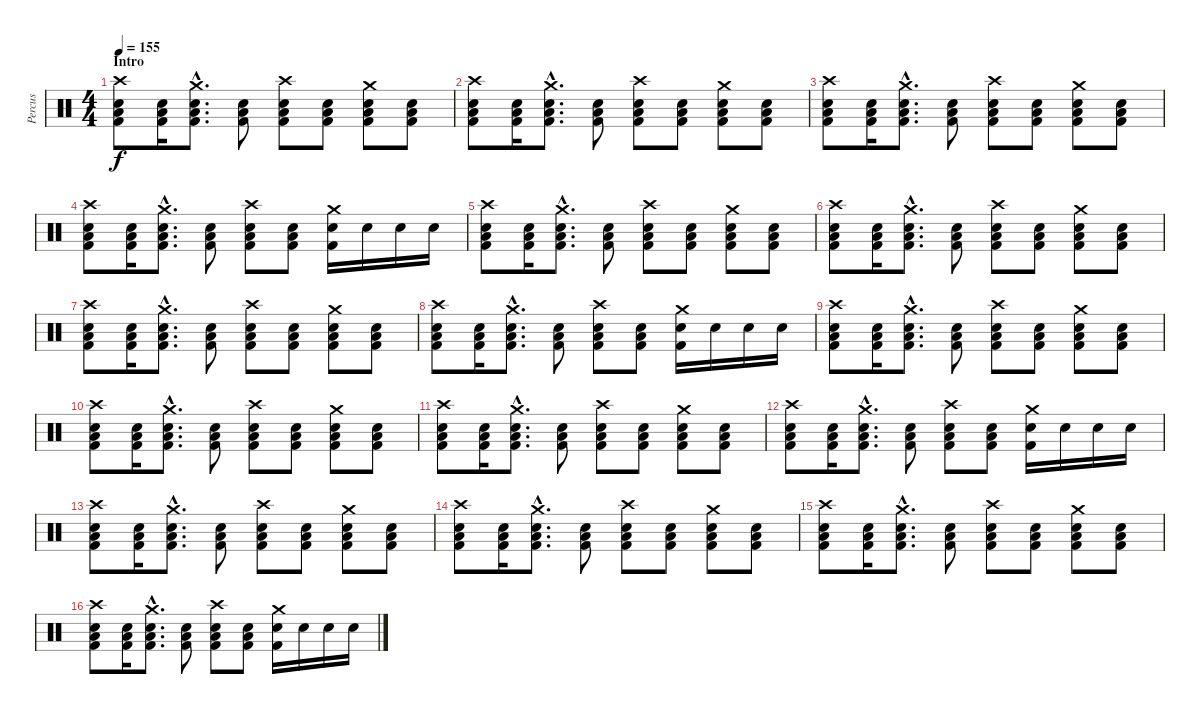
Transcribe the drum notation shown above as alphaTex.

\track ("Percus" "Percus") {instrument percussion}
\staff {score}
\articulation defaults
\ts (4 4)
\section ("" "Intro")
\tempo 155
\clef neutral
\ks c
("Crash high (hit)" "Electric Snare (hit)" "Low Floor Tom (hit)" "Kick (hit) 2").8{dy f} ("Electric Snare (hit)" "Low Tom (hit)" "Kick (hit) 2").16 ("Crash medium (hit)"{hac} "Electric Snare (hit)"{hac} "Low Floor Tom (hit)"{hac} "Kick (hit) 2"{hac}).8{d} ("Electric Snare (hit)" "Low Tom (hit)" "Kick (hit) 2").8 ("Crash high (hit)" "Electric Snare (hit)" "Low Floor Tom (hit)" "Kick (hit) 2").8 ("Electric Snare (hit)" "Low Tom (hit)" "Kick (hit) 2").8 ("Crash medium (hit)" "Electric Snare (hit)" "Low Floor Tom (hit)" "Kick (hit) 2").8 ("Electric Snare (hit)" "Low Tom (hit)" "Kick (hit) 2").8 |
("Crash high (hit)" "Electric Snare (hit)" "Low Floor Tom (hit)" "Kick (hit) 2").8 ("Electric Snare (hit)" "Low Tom (hit)" "Kick (hit) 2").16 ("Crash medium (hit)"{hac} "Electric Snare (hit)"{hac} "Low Floor Tom (hit)"{hac} "Kick (hit) 2"{hac}).8{d} ("Electric Snare (hit)" "Low Tom (hit)" "Kick (hit) 2").8 ("Crash high (hit)" "Electric Snare (hit)" "Low Floor Tom (hit)" "Kick (hit) 2").8 ("Electric Snare (hit)" "Low Tom (hit)" "Kick (hit) 2").8 ("Crash medium (hit)" "Electric Snare (hit)" "Low Floor Tom (hit)" "Kick (hit) 2").8 ("Electric Snare (hit)" "Low Tom (hit)" "Kick (hit) 2").8 |
("Crash high (hit)" "Electric Snare (hit)" "Low Floor Tom (hit)" "Kick (hit) 2").8 ("Electric Snare (hit)" "Low Tom (hit)" "Kick (hit) 2").16 ("Crash medium (hit)"{hac} "Electric Snare (hit)"{hac} "Low Floor Tom (hit)"{hac} "Kick (hit) 2"{hac}).8{d} ("Electric Snare (hit)" "Low Tom (hit)" "Kick (hit) 2").8 ("Crash high (hit)" "Electric Snare (hit)" "Low Floor Tom (hit)" "Kick (hit) 2").8 ("Electric Snare (hit)" "Low Tom (hit)" "Kick (hit) 2").8 ("Crash medium (hit)" "Electric Snare (hit)" "Low Floor Tom (hit)" "Kick (hit) 2").8 ("Electric Snare (hit)" "Low Tom (hit)" "Kick (hit) 2").8 |
("Crash high (hit)" "Electric Snare (hit)" "Low Floor Tom (hit)" "Kick (hit) 2").8 ("Electric Snare (hit)" "Low Tom (hit)" "Kick (hit) 2").16 ("Crash medium (hit)"{hac} "Electric Snare (hit)"{hac} "Low Floor Tom (hit)"{hac} "Kick (hit) 2"{hac}).8{d} ("Electric Snare (hit)" "Low Tom (hit)" "Kick (hit) 2").8 ("Crash high (hit)" "Electric Snare (hit)" "Low Floor Tom (hit)" "Kick (hit) 2").8 ("Electric Snare (hit)" "Low Tom (hit)" "Kick (hit) 2").8 ("Crash medium (hit)" "Electric Snare (hit)" "Kick (hit) 2").16 "Electric Snare (hit)".16 "Electric Snare (hit)".16 "Electric Snare (hit)".16 |
("Crash high (hit)" "Electric Snare (hit)" "Low Floor Tom (hit)" "Kick (hit) 2").8 ("Electric Snare (hit)" "Low Tom (hit)" "Kick (hit) 2").16 ("Crash medium (hit)"{hac} "Electric Snare (hit)"{hac} "Low Floor Tom (hit)"{hac} "Kick (hit) 2"{hac}).8{d} ("Electric Snare (hit)" "Low Tom (hit)" "Kick (hit) 2").8 ("Crash high (hit)" "Electric Snare (hit)" "Low Floor Tom (hit)" "Kick (hit) 2").8 ("Electric Snare (hit)" "Low Tom (hit)" "Kick (hit) 2").8 ("Crash medium (hit)" "Electric Snare (hit)" "Low Floor Tom (hit)" "Kick (hit) 2").8 ("Electric Snare (hit)" "Low Tom (hit)" "Kick (hit) 2").8 |
("Crash high (hit)" "Electric Snare (hit)" "Low Floor Tom (hit)" "Kick (hit) 2").8 ("Electric Snare (hit)" "Low Tom (hit)" "Kick (hit) 2").16 ("Crash medium (hit)"{hac} "Electric Snare (hit)"{hac} "Low Floor Tom (hit)"{hac} "Kick (hit) 2"{hac}).8{d} ("Electric Snare (hit)" "Low Tom (hit)" "Kick (hit) 2").8 ("Crash high (hit)" "Electric Snare (hit)" "Low Floor Tom (hit)" "Kick (hit) 2").8 ("Electric Snare (hit)" "Low Tom (hit)" "Kick (hit) 2").8 ("Crash medium (hit)" "Electric Snare (hit)" "Low Floor Tom (hit)" "Kick (hit) 2").8 ("Electric Snare (hit)" "Low Tom (hit)" "Kick (hit) 2").8 |
("Crash high (hit)" "Electric Snare (hit)" "Low Floor Tom (hit)" "Kick (hit) 2").8 ("Electric Snare (hit)" "Low Tom (hit)" "Kick (hit) 2").16 ("Crash medium (hit)"{hac} "Electric Snare (hit)"{hac} "Low Floor Tom (hit)"{hac} "Kick (hit) 2"{hac}).8{d} ("Electric Snare (hit)" "Low Tom (hit)" "Kick (hit) 2").8 ("Crash high (hit)" "Electric Snare (hit)" "Low Floor Tom (hit)" "Kick (hit) 2").8 ("Electric Snare (hit)" "Low Tom (hit)" "Kick (hit) 2").8 ("Crash medium (hit)" "Electric Snare (hit)" "Low Floor Tom (hit)" "Kick (hit) 2").8 ("Electric Snare (hit)" "Low Tom (hit)" "Kick (hit) 2").8 |
("Crash high (hit)" "Electric Snare (hit)" "Low Floor Tom (hit)" "Kick (hit) 2").8 ("Electric Snare (hit)" "Low Tom (hit)" "Kick (hit) 2").16 ("Crash medium (hit)"{hac} "Electric Snare (hit)"{hac} "Low Floor Tom (hit)"{hac} "Kick (hit) 2"{hac}).8{d} ("Electric Snare (hit)" "Low Tom (hit)" "Kick (hit) 2").8 ("Crash high (hit)" "Electric Snare (hit)" "Low Floor Tom (hit)" "Kick (hit) 2").8 ("Electric Snare (hit)" "Low Tom (hit)" "Kick (hit) 2").8 ("Crash medium (hit)" "Electric Snare (hit)" "Kick (hit) 2").16 "Electric Snare (hit)".16 "Electric Snare (hit)".16 "Electric Snare (hit)".16 |
("Crash high (hit)" "Electric Snare (hit)" "Low Floor Tom (hit)" "Kick (hit) 2").8 ("Electric Snare (hit)" "Low Tom (hit)" "Kick (hit) 2").16 ("Crash medium (hit)"{hac} "Electric Snare (hit)"{hac} "Low Floor Tom (hit)"{hac} "Kick (hit) 2"{hac}).8{d} ("Electric Snare (hit)" "Low Tom (hit)" "Kick (hit) 2").8 ("Crash high (hit)" "Electric Snare (hit)" "Low Floor Tom (hit)" "Kick (hit) 2").8 ("Electric Snare (hit)" "Low Tom (hit)" "Kick (hit) 2").8 ("Crash medium (hit)" "Electric Snare (hit)" "Low Floor Tom (hit)" "Kick (hit) 2").8 ("Electric Snare (hit)" "Low Tom (hit)" "Kick (hit) 2").8 |
("Crash high (hit)" "Electric Snare (hit)" "Low Floor Tom (hit)" "Kick (hit) 2").8 ("Electric Snare (hit)" "Low Tom (hit)" "Kick (hit) 2").16 ("Crash medium (hit)"{hac} "Electric Snare (hit)"{hac} "Low Floor Tom (hit)"{hac} "Kick (hit) 2"{hac}).8{d} ("Electric Snare (hit)" "Low Tom (hit)" "Kick (hit) 2").8 ("Crash high (hit)" "Electric Snare (hit)" "Low Floor Tom (hit)" "Kick (hit) 2").8 ("Electric Snare (hit)" "Low Tom (hit)" "Kick (hit) 2").8 ("Crash medium (hit)" "Electric Snare (hit)" "Low Floor Tom (hit)" "Kick (hit) 2").8 ("Electric Snare (hit)" "Low Tom (hit)" "Kick (hit) 2").8 |
("Crash high (hit)" "Electric Snare (hit)" "Low Floor Tom (hit)" "Kick (hit) 2").8 ("Electric Snare (hit)" "Low Tom (hit)" "Kick (hit) 2").16 ("Crash medium (hit)"{hac} "Electric Snare (hit)"{hac} "Low Floor Tom (hit)"{hac} "Kick (hit) 2"{hac}).8{d} ("Electric Snare (hit)" "Low Tom (hit)" "Kick (hit) 2").8 ("Crash high (hit)" "Electric Snare (hit)" "Low Floor Tom (hit)" "Kick (hit) 2").8 ("Electric Snare (hit)" "Low Tom (hit)" "Kick (hit) 2").8 ("Crash medium (hit)" "Electric Snare (hit)" "Low Floor Tom (hit)" "Kick (hit) 2").8 ("Electric Snare (hit)" "Low Tom (hit)" "Kick (hit) 2").8 |
("Crash high (hit)" "Electric Snare (hit)" "Low Floor Tom (hit)" "Kick (hit) 2").8 ("Electric Snare (hit)" "Low Tom (hit)" "Kick (hit) 2").16 ("Crash medium (hit)"{hac} "Electric Snare (hit)"{hac} "Low Floor Tom (hit)"{hac} "Kick (hit) 2"{hac}).8{d} ("Electric Snare (hit)" "Low Tom (hit)" "Kick (hit) 2").8 ("Crash high (hit)" "Electric Snare (hit)" "Low Floor Tom (hit)" "Kick (hit) 2").8 ("Electric Snare (hit)" "Low Tom (hit)" "Kick (hit) 2").8 ("Crash medium (hit)" "Electric Snare (hit)" "Kick (hit) 2").16 "Electric Snare (hit)".16 "Electric Snare (hit)".16 "Electric Snare (hit)".16 |
("Crash high (hit)" "Electric Snare (hit)" "Low Floor Tom (hit)" "Kick (hit) 2").8 ("Electric Snare (hit)" "Low Tom (hit)" "Kick (hit) 2").16 ("Crash medium (hit)"{hac} "Electric Snare (hit)"{hac} "Low Floor Tom (hit)"{hac} "Kick (hit) 2"{hac}).8{d} ("Electric Snare (hit)" "Low Tom (hit)" "Kick (hit) 2").8 ("Crash high (hit)" "Electric Snare (hit)" "Low Floor Tom (hit)" "Kick (hit) 2").8 ("Electric Snare (hit)" "Low Tom (hit)" "Kick (hit) 2").8 ("Crash medium (hit)" "Electric Snare (hit)" "Low Floor Tom (hit)" "Kick (hit) 2").8 ("Electric Snare (hit)" "Low Tom (hit)" "Kick (hit) 2").8 |
("Crash high (hit)" "Electric Snare (hit)" "Low Floor Tom (hit)" "Kick (hit) 2").8 ("Electric Snare (hit)" "Low Tom (hit)" "Kick (hit) 2").16 ("Crash medium (hit)"{hac} "Electric Snare (hit)"{hac} "Low Floor Tom (hit)"{hac} "Kick (hit) 2"{hac}).8{d} ("Electric Snare (hit)" "Low Tom (hit)" "Kick (hit) 2").8 ("Crash high (hit)" "Electric Snare (hit)" "Low Floor Tom (hit)" "Kick (hit) 2").8 ("Electric Snare (hit)" "Low Tom (hit)" "Kick (hit) 2").8 ("Crash medium (hit)" "Electric Snare (hit)" "Low Floor Tom (hit)" "Kick (hit) 2").8 ("Electric Snare (hit)" "Low Tom (hit)" "Kick (hit) 2").8 |
("Crash high (hit)" "Electric Snare (hit)" "Low Floor Tom (hit)" "Kick (hit) 2").8 ("Electric Snare (hit)" "Low Tom (hit)" "Kick (hit) 2").16 ("Crash medium (hit)"{hac} "Electric Snare (hit)"{hac} "Low Floor Tom (hit)"{hac} "Kick (hit) 2"{hac}).8{d} ("Electric Snare (hit)" "Low Tom (hit)" "Kick (hit) 2").8 ("Crash high (hit)" "Electric Snare (hit)" "Low Floor Tom (hit)" "Kick (hit) 2").8 ("Electric Snare (hit)" "Low Tom (hit)" "Kick (hit) 2").8 ("Crash medium (hit)" "Electric Snare (hit)" "Low Floor Tom (hit)" "Kick (hit) 2").8 ("Electric Snare (hit)" "Low Tom (hit)" "Kick (hit) 2").8 |
("Crash high (hit)" "Electric Snare (hit)" "Low Floor Tom (hit)" "Kick (hit) 2").8 ("Electric Snare (hit)" "Low Tom (hit)" "Kick (hit) 2").16 ("Crash medium (hit)"{hac} "Electric Snare (hit)"{hac} "Low Floor Tom (hit)"{hac} "Kick (hit) 2"{hac}).8{d} ("Electric Snare (hit)" "Low Tom (hit)" "Kick (hit) 2").8 ("Crash high (hit)" "Electric Snare (hit)" "Low Floor Tom (hit)" "Kick (hit) 2").8 ("Electric Snare (hit)" "Low Tom (hit)" "Kick (hit) 2").8 ("Crash medium (hit)" "Electric Snare (hit)" "Kick (hit) 2").16 "Electric Snare (hit)".16 "Electric Snare (hit)".16 "Electric Snare (hit)".16
